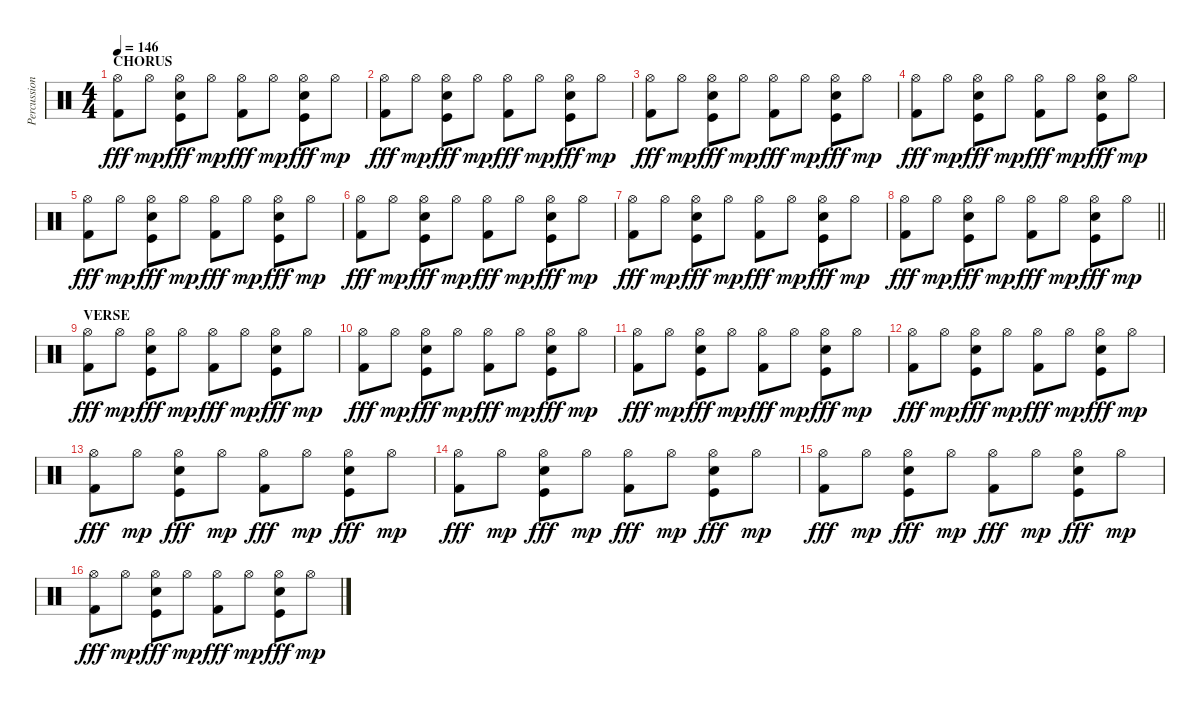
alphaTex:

\track ("Percussion" "Percussion") {instrument percussion}
\staff {score}
\articulation defaults
\ts (4 4)
\section ("" "CHORUS")
\tempo 146
\clef neutral
\ks c
("Hi-Hat (open)" "Kick (hit) 2").8{dy fff} "Hi-Hat (open)".8{dy mp} ("Hi-Hat (open)" "Kick (hit)" "Snare (hit) 2").8{dy fff} "Hi-Hat (open)".8{dy mp} ("Hi-Hat (open)" "Kick (hit) 2").8{dy fff} "Hi-Hat (open)".8{dy mp} ("Hi-Hat (open)" "Kick (hit)" "Snare (hit) 2").8{dy fff} "Hi-Hat (open)".8{dy mp} |
("Hi-Hat (open)" "Kick (hit) 2").8{dy fff} "Hi-Hat (open)".8{dy mp} ("Hi-Hat (open)" "Kick (hit)" "Snare (hit) 2").8{dy fff} "Hi-Hat (open)".8{dy mp} ("Hi-Hat (open)" "Kick (hit) 2").8{dy fff} "Hi-Hat (open)".8{dy mp} ("Hi-Hat (open)" "Kick (hit)" "Snare (hit) 2").8{dy fff} "Hi-Hat (open)".8{dy mp} |
("Hi-Hat (open)" "Kick (hit) 2").8{dy fff} "Hi-Hat (open)".8{dy mp} ("Hi-Hat (open)" "Kick (hit)" "Snare (hit) 2").8{dy fff} "Hi-Hat (open)".8{dy mp} ("Hi-Hat (open)" "Kick (hit) 2").8{dy fff} "Hi-Hat (open)".8{dy mp} ("Hi-Hat (open)" "Kick (hit)" "Snare (hit) 2").8{dy fff} "Hi-Hat (open)".8{dy mp} |
("Hi-Hat (open)" "Kick (hit) 2").8{dy fff} "Hi-Hat (open)".8{dy mp} ("Hi-Hat (open)" "Kick (hit)" "Snare (hit) 2").8{dy fff} "Hi-Hat (open)".8{dy mp} ("Hi-Hat (open)" "Kick (hit) 2").8{dy fff} "Hi-Hat (open)".8{dy mp} ("Hi-Hat (open)" "Kick (hit)" "Snare (hit) 2").8{dy fff} "Hi-Hat (open)".8{dy mp} |
("Hi-Hat (open)" "Kick (hit) 2").8{dy fff} "Hi-Hat (open)".8{dy mp} ("Hi-Hat (open)" "Kick (hit)" "Snare (hit) 2").8{dy fff} "Hi-Hat (open)".8{dy mp} ("Hi-Hat (open)" "Kick (hit) 2").8{dy fff} "Hi-Hat (open)".8{dy mp} ("Hi-Hat (open)" "Kick (hit)" "Snare (hit) 2").8{dy fff} "Hi-Hat (open)".8{dy mp} |
("Hi-Hat (open)" "Kick (hit) 2").8{dy fff} "Hi-Hat (open)".8{dy mp} ("Hi-Hat (open)" "Kick (hit)" "Snare (hit) 2").8{dy fff} "Hi-Hat (open)".8{dy mp} ("Hi-Hat (open)" "Kick (hit) 2").8{dy fff} "Hi-Hat (open)".8{dy mp} ("Hi-Hat (open)" "Kick (hit)" "Snare (hit) 2").8{dy fff} "Hi-Hat (open)".8{dy mp} |
("Hi-Hat (open)" "Kick (hit) 2").8{dy fff} "Hi-Hat (open)".8{dy mp} ("Hi-Hat (open)" "Kick (hit)" "Snare (hit) 2").8{dy fff} "Hi-Hat (open)".8{dy mp} ("Hi-Hat (open)" "Kick (hit) 2").8{dy fff} "Hi-Hat (open)".8{dy mp} ("Hi-Hat (open)" "Kick (hit)" "Snare (hit) 2").8{dy fff} "Hi-Hat (open)".8{dy mp} |
\barLineRight lightlight
("Hi-Hat (open)" "Kick (hit) 2").8{dy fff} "Hi-Hat (open)".8{dy mp} ("Hi-Hat (open)" "Kick (hit)" "Snare (hit) 2").8{dy fff} "Hi-Hat (open)".8{dy mp} ("Hi-Hat (open)" "Kick (hit) 2").8{dy fff} "Hi-Hat (open)".8{dy mp} ("Hi-Hat (open)" "Kick (hit)" "Snare (hit) 2").8{dy fff} "Hi-Hat (open)".8{dy mp} |
\section ("" "VERSE")
("Hi-Hat (open)" "Kick (hit) 2").8{dy fff} "Hi-Hat (open)".8{dy mp} ("Hi-Hat (open)" "Kick (hit)" "Snare (hit) 2").8{dy fff} "Hi-Hat (open)".8{dy mp} ("Hi-Hat (open)" "Kick (hit) 2").8{dy fff} "Hi-Hat (open)".8{dy mp} ("Hi-Hat (open)" "Kick (hit)" "Snare (hit) 2").8{dy fff} "Hi-Hat (open)".8{dy mp} |
("Hi-Hat (open)" "Kick (hit) 2").8{dy fff} "Hi-Hat (open)".8{dy mp} ("Hi-Hat (open)" "Kick (hit)" "Snare (hit) 2").8{dy fff} "Hi-Hat (open)".8{dy mp} ("Hi-Hat (open)" "Kick (hit) 2").8{dy fff} "Hi-Hat (open)".8{dy mp} ("Hi-Hat (open)" "Kick (hit)" "Snare (hit) 2").8{dy fff} "Hi-Hat (open)".8{dy mp} |
("Hi-Hat (open)" "Kick (hit) 2").8{dy fff} "Hi-Hat (open)".8{dy mp} ("Hi-Hat (open)" "Kick (hit)" "Snare (hit) 2").8{dy fff} "Hi-Hat (open)".8{dy mp} ("Hi-Hat (open)" "Kick (hit) 2").8{dy fff} "Hi-Hat (open)".8{dy mp} ("Hi-Hat (open)" "Kick (hit)" "Snare (hit) 2").8{dy fff} "Hi-Hat (open)".8{dy mp} |
("Hi-Hat (open)" "Kick (hit) 2").8{dy fff} "Hi-Hat (open)".8{dy mp} ("Hi-Hat (open)" "Kick (hit)" "Snare (hit) 2").8{dy fff} "Hi-Hat (open)".8{dy mp} ("Hi-Hat (open)" "Kick (hit) 2").8{dy fff} "Hi-Hat (open)".8{dy mp} ("Hi-Hat (open)" "Kick (hit)" "Snare (hit) 2").8{dy fff} "Hi-Hat (open)".8{dy mp} |
("Hi-Hat (open)" "Kick (hit) 2").8{dy fff} "Hi-Hat (open)".8{dy mp} ("Hi-Hat (open)" "Kick (hit)" "Snare (hit) 2").8{dy fff} "Hi-Hat (open)".8{dy mp} ("Hi-Hat (open)" "Kick (hit) 2").8{dy fff} "Hi-Hat (open)".8{dy mp} ("Hi-Hat (open)" "Kick (hit)" "Snare (hit) 2").8{dy fff} "Hi-Hat (open)".8{dy mp} |
("Hi-Hat (open)" "Kick (hit) 2").8{dy fff} "Hi-Hat (open)".8{dy mp} ("Hi-Hat (open)" "Kick (hit)" "Snare (hit) 2").8{dy fff} "Hi-Hat (open)".8{dy mp} ("Hi-Hat (open)" "Kick (hit) 2").8{dy fff} "Hi-Hat (open)".8{dy mp} ("Hi-Hat (open)" "Kick (hit)" "Snare (hit) 2").8{dy fff} "Hi-Hat (open)".8{dy mp} |
("Hi-Hat (open)" "Kick (hit) 2").8{dy fff} "Hi-Hat (open)".8{dy mp} ("Hi-Hat (open)" "Kick (hit)" "Snare (hit) 2").8{dy fff} "Hi-Hat (open)".8{dy mp} ("Hi-Hat (open)" "Kick (hit) 2").8{dy fff} "Hi-Hat (open)".8{dy mp} ("Hi-Hat (open)" "Kick (hit)" "Snare (hit) 2").8{dy fff} "Hi-Hat (open)".8{dy mp} |
("Hi-Hat (open)" "Kick (hit) 2").8{dy fff} "Hi-Hat (open)".8{dy mp} ("Hi-Hat (open)" "Kick (hit)" "Snare (hit) 2").8{dy fff} "Hi-Hat (open)".8{dy mp} ("Hi-Hat (open)" "Kick (hit) 2").8{dy fff} "Hi-Hat (open)".8{dy mp} ("Hi-Hat (open)" "Kick (hit)" "Snare (hit) 2").8{dy fff} "Hi-Hat (open)".8{dy mp}
